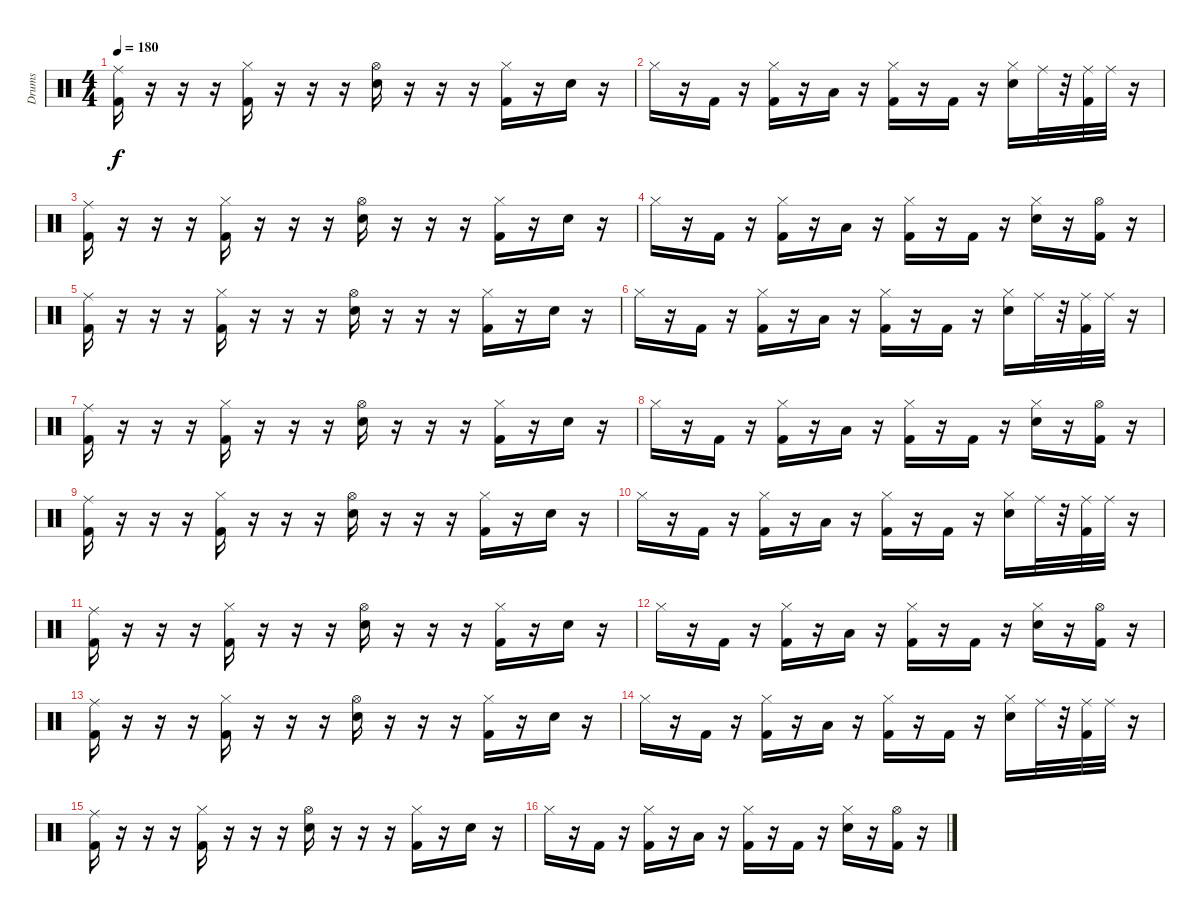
\track ("Drums" "Drums") {instrument percussion}
\staff {score}
\articulation defaults
\ts (4 4)
\tempo 180
\clef neutral
\ks c
("Ride (middle)" "Kick (hit) 2").16{dy f} r.16 r.16 r.16 ("Hi-Hat (closed)" "Kick (hit) 2").16 r.16 r.16 r.16 ("Hi-Hat (open)" "Electric Snare (hit)").16 r.16 r.16 r.16 ("Hi-Hat (closed)" "Kick (hit) 2").16 r.16 "Electric Snare (hit)".16 r.16 |
"Hi-Hat (closed)".16 r.16 "Kick (hit) 2".16 r.16 ("Hi-Hat (closed)" "Kick (hit) 2").16 r.16 "Low Floor Tom (hit)".16 r.16 ("Hi-Hat (closed)" "Kick (hit) 2").16 r.16 "Kick (hit) 2".16 r.16 ("Hi-Hat (closed)" "Electric Snare (hit)").16 "Ride (middle)".32 r.32 ("Ride (middle)" "Kick (hit) 2").32 "Ride (middle)".32 r.16 |
("Ride (middle)" "Kick (hit) 2").16 r.16 r.16 r.16 ("Hi-Hat (closed)" "Kick (hit) 2").16 r.16 r.16 r.16 ("Hi-Hat (open)" "Electric Snare (hit)").16 r.16 r.16 r.16 ("Hi-Hat (closed)" "Kick (hit) 2").16 r.16 "Electric Snare (hit)".16 r.16 |
"Hi-Hat (closed)".16 r.16 "Kick (hit) 2".16 r.16 ("Hi-Hat (closed)" "Kick (hit) 2").16 r.16 "Low Floor Tom (hit)".16 r.16 ("Hi-Hat (closed)" "Kick (hit) 2").16 r.16 "Kick (hit) 2".16 r.16 ("Hi-Hat (closed)" "Electric Snare (hit)").16 r.16 ("Hi-Hat (open)" "Kick (hit) 2").16 r.16 |
("Ride (middle)" "Kick (hit) 2").16 r.16 r.16 r.16 ("Hi-Hat (closed)" "Kick (hit) 2").16 r.16 r.16 r.16 ("Hi-Hat (open)" "Electric Snare (hit)").16 r.16 r.16 r.16 ("Hi-Hat (closed)" "Kick (hit) 2").16 r.16 "Electric Snare (hit)".16 r.16 |
"Hi-Hat (closed)".16 r.16 "Kick (hit) 2".16 r.16 ("Hi-Hat (closed)" "Kick (hit) 2").16 r.16 "Low Floor Tom (hit)".16 r.16 ("Hi-Hat (closed)" "Kick (hit) 2").16 r.16 "Kick (hit) 2".16 r.16 ("Hi-Hat (closed)" "Electric Snare (hit)").16 "Ride (middle)".32 r.32 ("Ride (middle)" "Kick (hit) 2").32 "Ride (middle)".32 r.16 |
("Ride (middle)" "Kick (hit) 2").16 r.16 r.16 r.16 ("Hi-Hat (closed)" "Kick (hit) 2").16 r.16 r.16 r.16 ("Hi-Hat (open)" "Electric Snare (hit)").16 r.16 r.16 r.16 ("Hi-Hat (closed)" "Kick (hit) 2").16 r.16 "Electric Snare (hit)".16 r.16 |
"Hi-Hat (closed)".16 r.16 "Kick (hit) 2".16 r.16 ("Hi-Hat (closed)" "Kick (hit) 2").16 r.16 "Low Floor Tom (hit)".16 r.16 ("Hi-Hat (closed)" "Kick (hit) 2").16 r.16 "Kick (hit) 2".16 r.16 ("Hi-Hat (closed)" "Electric Snare (hit)").16 r.16 ("Hi-Hat (open)" "Kick (hit) 2").16 r.16 |
("Ride (middle)" "Kick (hit) 2").16 r.16 r.16 r.16 ("Hi-Hat (closed)" "Kick (hit) 2").16 r.16 r.16 r.16 ("Hi-Hat (open)" "Electric Snare (hit)").16 r.16 r.16 r.16 ("Hi-Hat (closed)" "Kick (hit) 2").16 r.16 "Electric Snare (hit)".16 r.16 |
"Hi-Hat (closed)".16 r.16 "Kick (hit) 2".16 r.16 ("Hi-Hat (closed)" "Kick (hit) 2").16 r.16 "Low Floor Tom (hit)".16 r.16 ("Hi-Hat (closed)" "Kick (hit) 2").16 r.16 "Kick (hit) 2".16 r.16 ("Hi-Hat (closed)" "Electric Snare (hit)").16 "Ride (middle)".32 r.32 ("Ride (middle)" "Kick (hit) 2").32 "Ride (middle)".32 r.16 |
("Ride (middle)" "Kick (hit) 2").16 r.16 r.16 r.16 ("Hi-Hat (closed)" "Kick (hit) 2").16 r.16 r.16 r.16 ("Hi-Hat (open)" "Electric Snare (hit)").16 r.16 r.16 r.16 ("Hi-Hat (closed)" "Kick (hit) 2").16 r.16 "Electric Snare (hit)".16 r.16 |
"Hi-Hat (closed)".16 r.16 "Kick (hit) 2".16 r.16 ("Hi-Hat (closed)" "Kick (hit) 2").16 r.16 "Low Floor Tom (hit)".16 r.16 ("Hi-Hat (closed)" "Kick (hit) 2").16 r.16 "Kick (hit) 2".16 r.16 ("Hi-Hat (closed)" "Electric Snare (hit)").16 r.16 ("Hi-Hat (open)" "Kick (hit) 2").16 r.16 |
("Ride (middle)" "Kick (hit) 2").16 r.16 r.16 r.16 ("Hi-Hat (closed)" "Kick (hit) 2").16 r.16 r.16 r.16 ("Hi-Hat (open)" "Electric Snare (hit)").16 r.16 r.16 r.16 ("Hi-Hat (closed)" "Kick (hit) 2").16 r.16 "Electric Snare (hit)".16 r.16 |
"Hi-Hat (closed)".16 r.16 "Kick (hit) 2".16 r.16 ("Hi-Hat (closed)" "Kick (hit) 2").16 r.16 "Low Floor Tom (hit)".16 r.16 ("Hi-Hat (closed)" "Kick (hit) 2").16 r.16 "Kick (hit) 2".16 r.16 ("Hi-Hat (closed)" "Electric Snare (hit)").16 "Ride (middle)".32 r.32 ("Ride (middle)" "Kick (hit) 2").32 "Ride (middle)".32 r.16 |
("Ride (middle)" "Kick (hit) 2").16 r.16 r.16 r.16 ("Hi-Hat (closed)" "Kick (hit) 2").16 r.16 r.16 r.16 ("Hi-Hat (open)" "Electric Snare (hit)").16 r.16 r.16 r.16 ("Hi-Hat (closed)" "Kick (hit) 2").16 r.16 "Electric Snare (hit)".16 r.16 |
"Hi-Hat (closed)".16 r.16 "Kick (hit) 2".16 r.16 ("Hi-Hat (closed)" "Kick (hit) 2").16 r.16 "Low Floor Tom (hit)".16 r.16 ("Hi-Hat (closed)" "Kick (hit) 2").16 r.16 "Kick (hit) 2".16 r.16 ("Hi-Hat (closed)" "Electric Snare (hit)").16 r.16 ("Hi-Hat (open)" "Kick (hit) 2").16 r.16
